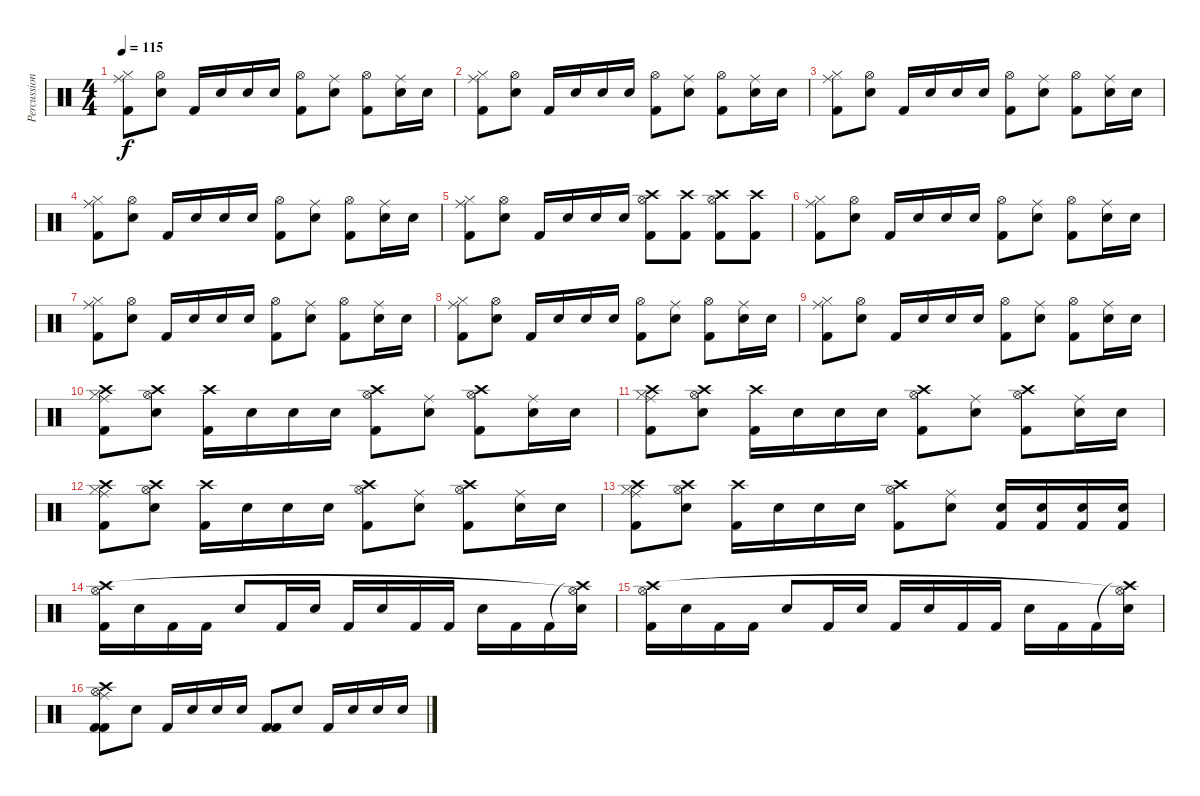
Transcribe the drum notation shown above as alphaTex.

\track ("Percussion" "Percussion") {instrument percussion}
\staff {score}
\articulation defaults
\ts (4 4)
\tempo 115
\clef neutral
\ks c
("Ride (middle)" "Hi-Hat (closed)" "Kick (hit) 2").8{dy f} ("Snare (hit) 2" "Hi-Hat (open)").8 "Kick (hit) 2".16 "Snare (hit) 2".16 "Snare (hit) 2".16 "Snare (hit) 2".16 ("Hi-Hat (open)" "Kick (hit) 2").8 ("Ride (middle)" "Snare (hit) 2").8 ("Hi-Hat (open)" "Kick (hit) 2").8 ("Ride (middle)" "Snare (hit) 2").16 "Snare (hit) 2".16 |
("Ride (middle)" "Hi-Hat (closed)" "Kick (hit) 2").8 ("Snare (hit) 2" "Hi-Hat (open)").8 "Kick (hit) 2".16 "Snare (hit) 2".16 "Snare (hit) 2".16 "Snare (hit) 2".16 ("Hi-Hat (open)" "Kick (hit) 2").8 ("Ride (middle)" "Snare (hit) 2").8 ("Hi-Hat (open)" "Kick (hit) 2").8 ("Ride (middle)" "Snare (hit) 2").16 "Snare (hit) 2".16 |
("Ride (middle)" "Hi-Hat (closed)" "Kick (hit) 2").8 ("Snare (hit) 2" "Hi-Hat (open)").8 "Kick (hit) 2".16 "Snare (hit) 2".16 "Snare (hit) 2".16 "Snare (hit) 2".16 ("Hi-Hat (open)" "Kick (hit) 2").8 ("Ride (middle)" "Snare (hit) 2").8 ("Hi-Hat (open)" "Kick (hit) 2").8 ("Ride (middle)" "Snare (hit) 2").16 "Snare (hit) 2".16 |
("Ride (middle)" "Hi-Hat (closed)" "Kick (hit) 2").8 ("Snare (hit) 2" "Hi-Hat (open)").8 "Kick (hit) 2".16 "Snare (hit) 2".16 "Snare (hit) 2".16 "Snare (hit) 2".16 ("Hi-Hat (open)" "Kick (hit) 2").8 ("Ride (middle)" "Snare (hit) 2").8 ("Hi-Hat (open)" "Kick (hit) 2").8 ("Ride (middle)" "Snare (hit) 2").16 "Snare (hit) 2".16 |
("Ride (middle)" "Hi-Hat (closed)" "Kick (hit) 2").8 ("Snare (hit) 2" "Hi-Hat (open)").8 "Kick (hit) 2".16 "Snare (hit) 2".16 "Snare (hit) 2".16 "Snare (hit) 2".16 ("Crash high (hit)" "Hi-Hat (open)" "Kick (hit) 2").8 ("Crash high (hit)" "Kick (hit) 2").8 ("Crash high (hit)" "Hi-Hat (open)" "Kick (hit) 2").8 ("Crash high (hit)" "Kick (hit) 2").8 |
("Ride (middle)" "Hi-Hat (closed)" "Kick (hit) 2").8 ("Snare (hit) 2" "Hi-Hat (open)").8 "Kick (hit) 2".16 "Snare (hit) 2".16 "Snare (hit) 2".16 "Snare (hit) 2".16 ("Hi-Hat (open)" "Kick (hit) 2").8 ("Ride (middle)" "Snare (hit) 2").8 ("Hi-Hat (open)" "Kick (hit) 2").8 ("Ride (middle)" "Snare (hit) 2").16 "Snare (hit) 2".16 |
("Ride (middle)" "Hi-Hat (closed)" "Kick (hit) 2").8 ("Snare (hit) 2" "Hi-Hat (open)").8 "Kick (hit) 2".16 "Snare (hit) 2".16 "Snare (hit) 2".16 "Snare (hit) 2".16 ("Hi-Hat (open)" "Kick (hit) 2").8 ("Ride (middle)" "Snare (hit) 2").8 ("Hi-Hat (open)" "Kick (hit) 2").8 ("Ride (middle)" "Snare (hit) 2").16 "Snare (hit) 2".16 |
("Ride (middle)" "Hi-Hat (closed)" "Kick (hit) 2").8 ("Snare (hit) 2" "Hi-Hat (open)").8 "Kick (hit) 2".16 "Snare (hit) 2".16 "Snare (hit) 2".16 "Snare (hit) 2".16 ("Hi-Hat (open)" "Kick (hit) 2").8 ("Ride (middle)" "Snare (hit) 2").8 ("Hi-Hat (open)" "Kick (hit) 2").8 ("Ride (middle)" "Snare (hit) 2").16 "Snare (hit) 2".16 |
("Ride (middle)" "Hi-Hat (closed)" "Kick (hit) 2").8 ("Snare (hit) 2" "Hi-Hat (open)").8 "Kick (hit) 2".16 "Snare (hit) 2".16 "Snare (hit) 2".16 "Snare (hit) 2".16 ("Hi-Hat (open)" "Kick (hit) 2").8 ("Ride (middle)" "Snare (hit) 2").8 ("Hi-Hat (open)" "Kick (hit) 2").8 ("Ride (middle)" "Snare (hit) 2").16 "Snare (hit) 2".16 |
("Crash high (hit)" "Ride (middle)" "Hi-Hat (closed)" "Kick (hit) 2").8 ("Crash high (hit)" "Snare (hit) 2" "Hi-Hat (open)").8 ("Crash high (hit)" "Kick (hit) 2").16 "Snare (hit) 2".16 "Snare (hit) 2".16 "Snare (hit) 2".16 ("Crash high (hit)" "Hi-Hat (open)" "Kick (hit) 2").8 ("Ride (middle)" "Snare (hit) 2").8 ("Crash high (hit)" "Hi-Hat (open)" "Kick (hit) 2").8 ("Ride (middle)" "Snare (hit) 2").16 "Snare (hit) 2".16 |
("Crash high (hit)" "Ride (middle)" "Hi-Hat (closed)" "Kick (hit) 2").8 ("Crash high (hit)" "Snare (hit) 2" "Hi-Hat (open)").8 ("Crash high (hit)" "Kick (hit) 2").16 "Snare (hit) 2".16 "Snare (hit) 2".16 "Snare (hit) 2".16 ("Crash high (hit)" "Hi-Hat (open)" "Kick (hit) 2").8 ("Ride (middle)" "Snare (hit) 2").8 ("Crash high (hit)" "Hi-Hat (open)" "Kick (hit) 2").8 ("Ride (middle)" "Snare (hit) 2").16 "Snare (hit) 2".16 |
("Crash high (hit)" "Ride (middle)" "Hi-Hat (closed)" "Kick (hit) 2").8 ("Crash high (hit)" "Snare (hit) 2" "Hi-Hat (open)").8 ("Crash high (hit)" "Kick (hit) 2").16 "Snare (hit) 2".16 "Snare (hit) 2".16 "Snare (hit) 2".16 ("Crash high (hit)" "Hi-Hat (open)" "Kick (hit) 2").8 ("Ride (middle)" "Snare (hit) 2").8 ("Crash high (hit)" "Hi-Hat (open)" "Kick (hit) 2").8 ("Ride (middle)" "Snare (hit) 2").16 "Snare (hit) 2".16 |
("Crash high (hit)" "Ride (middle)" "Hi-Hat (closed)" "Kick (hit) 2").8 ("Crash high (hit)" "Snare (hit) 2" "Hi-Hat (open)").8 ("Crash high (hit)" "Kick (hit) 2").16 "Snare (hit) 2".16 "Snare (hit) 2".16 "Snare (hit) 2".16 ("Crash high (hit)" "Hi-Hat (open)" "Kick (hit) 2").8 ("Ride (middle)" "Snare (hit) 2").8 ("Kick (hit) 2" "Snare (hit) 2").16 ("Kick (hit) 2" "Snare (hit) 2").16 ("Kick (hit) 2" "Snare (hit) 2").16 ("Kick (hit) 2" "Snare (hit) 2").16 |
("Hi-Hat (open)" "Crash high (hit)" "Kick (hit) 2").16 "Snare (hit) 2".16 "Kick (hit) 2".16 "Kick (hit) 2".16 "Snare (hit) 2".8 "Kick (hit) 2".16 "Snare (hit) 2".16 "Kick (hit) 2".16 "Snare (hit) 2".16 "Kick (hit) 2".16 "Kick (hit) 2".16 "Snare (hit) 2".16 "Kick (hit) 2".16 "Kick (hit) 2".16 ("Crash high (hit)"{t} "Hi-Hat (open)"{t} "Snare (hit) 2").16 |
("Hi-Hat (open)" "Crash high (hit)" "Kick (hit) 2").16 "Snare (hit) 2".16 "Kick (hit) 2".16 "Kick (hit) 2".16 "Snare (hit) 2".8 "Kick (hit) 2".16 "Snare (hit) 2".16 "Kick (hit) 2".16 "Snare (hit) 2".16 "Kick (hit) 2".16 "Kick (hit) 2".16 "Snare (hit) 2".16 "Kick (hit) 2".16 "Kick (hit) 2".16 ("Crash high (hit)"{t} "Hi-Hat (open)"{t} "Snare (hit) 2").16 |
("Ride (middle)" "Crash high (hit)" "Hi-Hat (open)" "Kick (hit) 2" "Kick (hit) 2").8 "Snare (hit) 2".8 "Kick (hit) 2".16 "Snare (hit) 2".16 "Snare (hit) 2".16 "Snare (hit) 2".16 ("Kick (hit) 2" "Kick (hit) 2").8 "Snare (hit) 2".8 "Kick (hit) 2".16 "Snare (hit) 2".16 "Snare (hit) 2".16 "Snare (hit) 2".16
